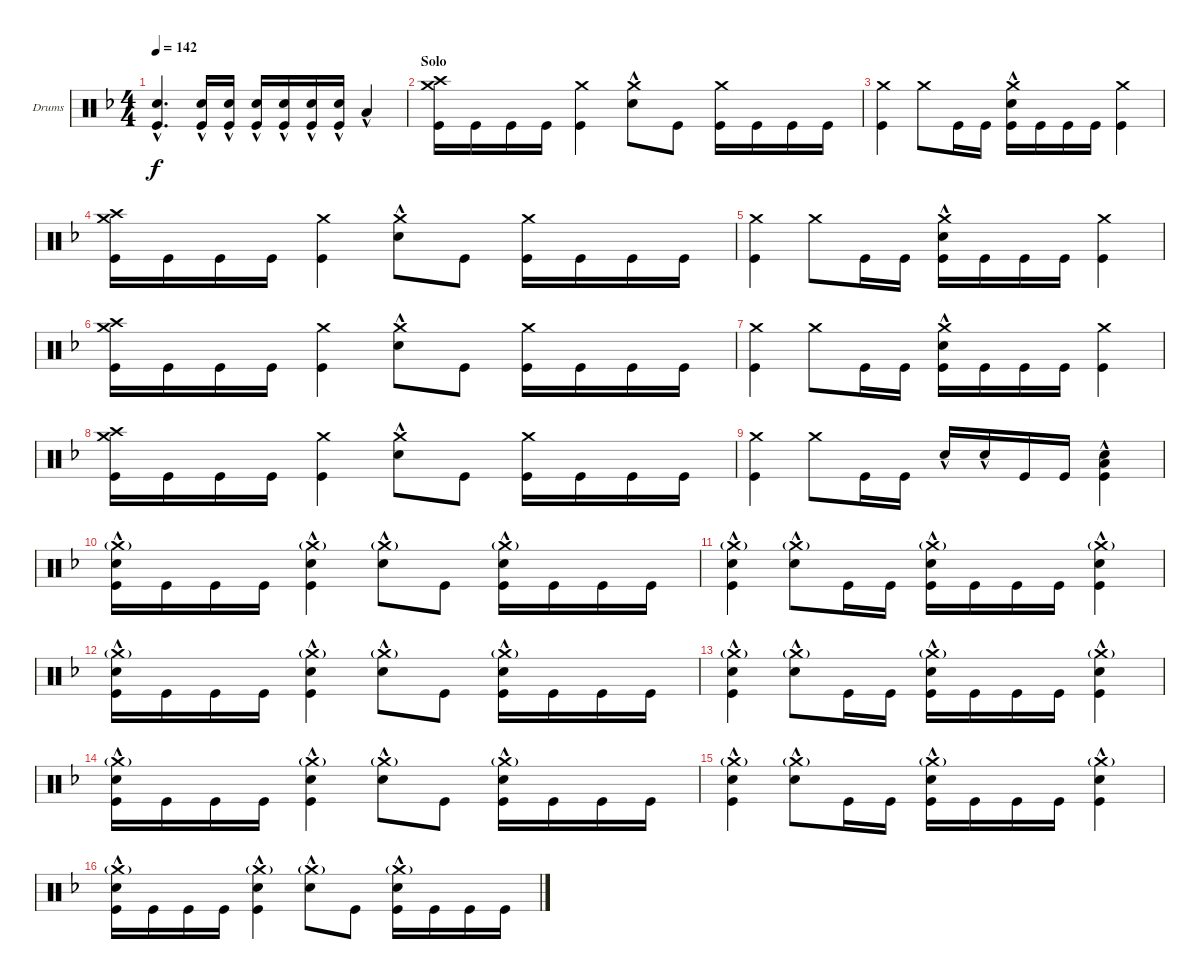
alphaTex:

\bracketExtendMode groupsimilarinstruments
\firstSystemTrackNameOrientation horizontal
\otherSystemsTrackNameOrientation horizontal
\track ("Drumkit" "Drums") {instrument percussion}
\staff {score}
\articulation defaults
\ts (4 4)
\tempo 142
\clef neutral
\scale
0.333333
\ks dminor
("Snare (hit) 2"{hac} "Kick (hit)").4{d dy f} ("Snare (hit) 2"{hac} "Kick (hit)").16 ("Snare (hit) 2"{hac} "Kick (hit)").16 ("Snare (hit) 2"{hac} "Kick (hit)").16 ("Snare (hit) 2"{hac} "Kick (hit)").16 ("Snare (hit) 2"{hac} "Kick (hit)").16 ("Snare (hit) 2"{hac} "Kick (hit)").16 "Low Tom (hit)"{hac}.4 |
\section ("" "Solo")
\scale
0.333333 ("Crash high (hit)" "Crash medium (hit)" "Kick (hit)").16 "Kick (hit)".16 "Kick (hit)".16 "Kick (hit)".16 ("Kick (hit)" "Crash medium (hit)").4 ("Crash medium (hit)" "Snare (hit) 2"{hac}).8 "Kick (hit)".8 ("Kick (hit)" "Crash medium (hit)").16 "Kick (hit)".16 "Kick (hit)".16 "Kick (hit)".16 |
\scale
0.333333 ("Crash medium (hit)" "Kick (hit)").4 "Crash medium (hit)".8 "Kick (hit)".16 "Kick (hit)".16 ("Crash medium (hit)" "Snare (hit) 2"{hac} "Kick (hit)").16 "Kick (hit)".16 "Kick (hit)".16 "Kick (hit)".16 ("Kick (hit)" "Crash medium (hit)").4 |
\scale
0.333333 ("Crash high (hit)" "Crash medium (hit)" "Kick (hit)").16 "Kick (hit)".16 "Kick (hit)".16 "Kick (hit)".16 ("Kick (hit)" "Crash medium (hit)").4 ("Crash medium (hit)" "Snare (hit) 2"{hac}).8 "Kick (hit)".8 ("Kick (hit)" "Crash medium (hit)").16 "Kick (hit)".16 "Kick (hit)".16 "Kick (hit)".16 |
\scale
0.333333 ("Crash medium (hit)" "Kick (hit)").4 "Crash medium (hit)".8 "Kick (hit)".16 "Kick (hit)".16 ("Crash medium (hit)" "Snare (hit) 2"{hac} "Kick (hit)").16 "Kick (hit)".16 "Kick (hit)".16 "Kick (hit)".16 ("Kick (hit)" "Crash medium (hit)").4 |
\scale
0.333333 ("Crash high (hit)" "Crash medium (hit)" "Kick (hit)").16 "Kick (hit)".16 "Kick (hit)".16 "Kick (hit)".16 ("Kick (hit)" "Crash medium (hit)").4 ("Crash medium (hit)" "Snare (hit) 2"{hac}).8 "Kick (hit)".8 ("Kick (hit)" "Crash medium (hit)").16 "Kick (hit)".16 "Kick (hit)".16 "Kick (hit)".16 |
\scale
0.333333 ("Crash medium (hit)" "Kick (hit)").4 "Crash medium (hit)".8 "Kick (hit)".16 "Kick (hit)".16 ("Crash medium (hit)" "Snare (hit) 2"{hac} "Kick (hit)").16 "Kick (hit)".16 "Kick (hit)".16 "Kick (hit)".16 ("Kick (hit)" "Crash medium (hit)").4 |
\scale
0.333333 ("Crash high (hit)" "Crash medium (hit)" "Kick (hit)").16 "Kick (hit)".16 "Kick (hit)".16 "Kick (hit)".16 ("Kick (hit)" "Crash medium (hit)").4 ("Crash medium (hit)" "Snare (hit) 2"{hac}).8 "Kick (hit)".8 ("Kick (hit)" "Crash medium (hit)").16 "Kick (hit)".16 "Kick (hit)".16 "Kick (hit)".16 |
\scale
0.333333 ("Crash medium (hit)" "Kick (hit)").4 "Crash medium (hit)".8 "Kick (hit)".16 "Kick (hit)".16 "Snare (hit) 2"{hac}.16 "Snare (hit) 2"{hac}.16 "Kick (hit)".16 "Kick (hit)".16 ("Snare (hit) 2"{hac} "Low Tom (hit)"{hac} "Kick (hit)").4 |
\scale
0.333333 ("Kick (hit)" "Snare (hit) 2"{hac} "Crash medium (hit)"{g}).16 "Kick (hit)".16 "Kick (hit)".16 "Kick (hit)".16 ("Kick (hit)" "Snare (hit) 2"{hac} "Crash medium (hit)"{g}).4 ("Crash medium (hit)"{g} "Snare (hit) 2"{hac}).8 "Kick (hit)".8 ("Kick (hit)" "Snare (hit) 2"{hac} "Crash medium (hit)"{g}).16 "Kick (hit)".16 "Kick (hit)".16 "Kick (hit)".16 |
\scale
0.333333 ("Kick (hit)" "Snare (hit) 2"{hac} "Crash medium (hit)"{g}).4 ("Snare (hit) 2"{hac} "Crash medium (hit)"{g}).8 "Kick (hit)".16 "Kick (hit)".16 ("Snare (hit) 2"{hac} "Kick (hit)" "Crash medium (hit)"{g}).16 "Kick (hit)".16 "Kick (hit)".16 "Kick (hit)".16 ("Kick (hit)" "Snare (hit) 2"{hac} "Crash medium (hit)"{g}).4 |
\scale
0.333333 ("Kick (hit)" "Snare (hit) 2"{hac} "Crash medium (hit)"{g}).16 "Kick (hit)".16 "Kick (hit)".16 "Kick (hit)".16 ("Kick (hit)" "Snare (hit) 2"{hac} "Crash medium (hit)"{g}).4 ("Crash medium (hit)"{g} "Snare (hit) 2"{hac}).8 "Kick (hit)".8 ("Kick (hit)" "Snare (hit) 2"{hac} "Crash medium (hit)"{g}).16 "Kick (hit)".16 "Kick (hit)".16 "Kick (hit)".16 |
\scale
0.333333 ("Kick (hit)" "Snare (hit) 2"{hac} "Crash medium (hit)"{g}).4 ("Snare (hit) 2"{hac} "Crash medium (hit)"{g}).8 "Kick (hit)".16 "Kick (hit)".16 ("Snare (hit) 2"{hac} "Kick (hit)" "Crash medium (hit)"{g}).16 "Kick (hit)".16 "Kick (hit)".16 "Kick (hit)".16 ("Kick (hit)" "Snare (hit) 2"{hac} "Crash medium (hit)"{g}).4 |
\scale
0.333333 ("Kick (hit)" "Snare (hit) 2"{hac} "Crash medium (hit)"{g}).16 "Kick (hit)".16 "Kick (hit)".16 "Kick (hit)".16 ("Kick (hit)" "Snare (hit) 2"{hac} "Crash medium (hit)"{g}).4 ("Crash medium (hit)"{g} "Snare (hit) 2"{hac}).8 "Kick (hit)".8 ("Kick (hit)" "Snare (hit) 2"{hac} "Crash medium (hit)"{g}).16 "Kick (hit)".16 "Kick (hit)".16 "Kick (hit)".16 |
\scale
0.333333 ("Kick (hit)" "Snare (hit) 2"{hac} "Crash medium (hit)"{g}).4 ("Snare (hit) 2"{hac} "Crash medium (hit)"{g}).8 "Kick (hit)".16 "Kick (hit)".16 ("Snare (hit) 2"{hac} "Kick (hit)" "Crash medium (hit)"{g}).16 "Kick (hit)".16 "Kick (hit)".16 "Kick (hit)".16 ("Kick (hit)" "Snare (hit) 2"{hac} "Crash medium (hit)"{g}).4 |
\scale
0.333333 ("Kick (hit)" "Snare (hit) 2"{hac} "Crash medium (hit)"{g}).16 "Kick (hit)".16 "Kick (hit)".16 "Kick (hit)".16 ("Kick (hit)" "Snare (hit) 2"{hac} "Crash medium (hit)"{g}).4 ("Crash medium (hit)"{g} "Snare (hit) 2"{hac}).8 "Kick (hit)".8 ("Kick (hit)" "Snare (hit) 2"{hac} "Crash medium (hit)"{g}).16 "Kick (hit)".16 "Kick (hit)".16 "Kick (hit)".16
